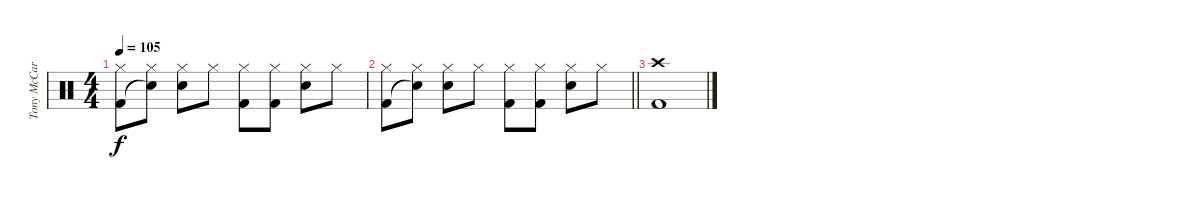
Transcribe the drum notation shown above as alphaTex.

\track ("Tony McCaroll" "Tony McCar") {instrument percussion}
\staff {score}
\articulation defaults
\ts (4 4)
\tempo 105
\clef neutral
\ks c
("Hi-Hat (closed)" "Kick (hit) 2").8{dy f} ("Hi-Hat (closed)" "Snare (hit)"{t}).8 ("Hi-Hat (closed)" "Snare (hit) 2").8 "Hi-Hat (closed)".8 ("Hi-Hat (closed)" "Kick (hit) 2").8 ("Hi-Hat (closed)" "Kick (hit) 2").8 ("Hi-Hat (closed)" "Snare (hit) 2").8 "Hi-Hat (closed)".8 |
\barLineRight lightlight
("Hi-Hat (closed)" "Kick (hit) 2").8 ("Hi-Hat (closed)" "Snare (hit)"{t}).8 ("Hi-Hat (closed)" "Snare (hit) 2").8 "Hi-Hat (closed)".8 ("Hi-Hat (closed)" "Kick (hit) 2").8 ("Hi-Hat (closed)" "Kick (hit) 2").8 ("Hi-Hat (closed)" "Snare (hit) 2").8 "Hi-Hat (closed)".8 |
("Crash high (hit)" "Kick (hit) 2").1
